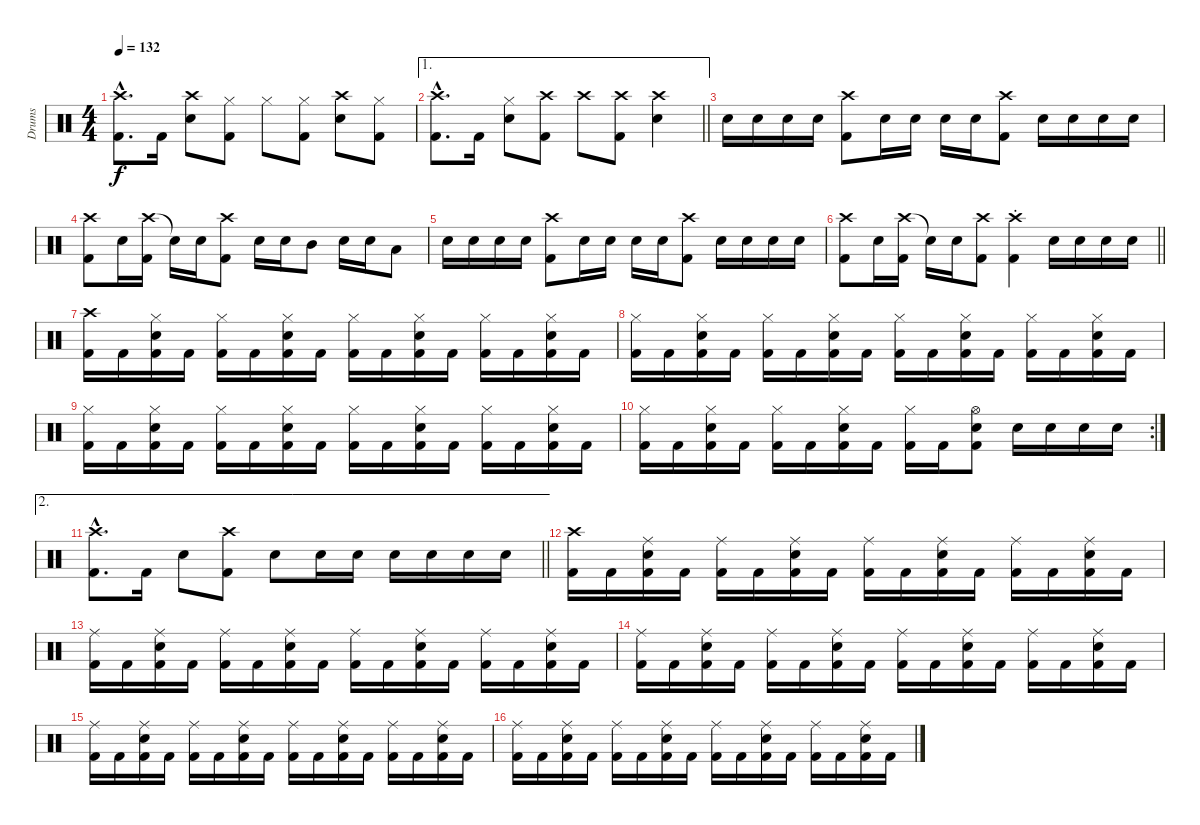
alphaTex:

\track ("Drums" "Drums") {instrument percussion}
\staff {score}
\articulation defaults
\ts (4 4)
\tempo 132
\clef neutral
\ks c
("Crash high (hit)"{hac} "Kick (hit) 2"{hac}).8{d dy f} "Kick (hit) 2".16 ("Crash high (hit)" "Snare (hit) 2").8 ("Hi-Hat (closed)" "Kick (hit) 2").8 "Hi-Hat (closed)".8 ("Hi-Hat (closed)" "Kick (hit) 2").8 ("Crash high (hit)" "Snare (hit) 2").8 ("Hi-Hat (closed)" "Kick (hit) 2").8 |
\ae 1
\barLineRight lightlight
("Crash high (hit)"{hac} "Kick (hit) 2"{hac}).8{d} "Kick (hit) 2".16 ("Hi-Hat (closed)" "Snare (hit) 2").8 ("Crash high (hit)" "Kick (hit) 2").8 "Crash high (hit)".8 ("Crash high (hit)" "Kick (hit) 2").8 ("Crash high (hit)" "Snare (hit) 2").4 |
"Snare (hit) 2".16 "Snare (hit) 2".16 "Snare (hit) 2".16 "Snare (hit) 2".16 ("Crash high (hit)" "Kick (hit) 2").8 "Snare (hit) 2".16 "Snare (hit) 2".16 "Snare (hit) 2".16 "Snare (hit) 2".16 ("Crash high (hit)" "Kick (hit) 2").8 "Snare (hit) 2".16 "Snare (hit) 2".16 "Snare (hit) 2".16 "Snare (hit) 2".16 |
("Crash high (hit)" "Kick (hit) 2").8 "Snare (hit) 2".16 ("Crash high (hit)" "Kick (hit) 2").16 "Snare (hit)"{t}.16 "Snare (hit) 2".16 ("Crash high (hit)" "Kick (hit) 2").8 "Snare (hit) 2".16 "Snare (hit) 2".16 "Mid Tom (hit)".8 "Snare (hit) 2".16 "Snare (hit) 2".16 "Low Tom (hit)".8 |
"Snare (hit) 2".16 "Snare (hit) 2".16 "Snare (hit) 2".16 "Snare (hit) 2".16 ("Crash high (hit)" "Kick (hit) 2").8 "Snare (hit) 2".16 "Snare (hit) 2".16 "Snare (hit) 2".16 "Snare (hit) 2".16 ("Crash high (hit)" "Kick (hit) 2").8 "Snare (hit) 2".16 "Snare (hit) 2".16 "Snare (hit) 2".16 "Snare (hit) 2".16 |
\barLineRight lightlight
("Crash high (hit)" "Kick (hit) 2").8 "Snare (hit) 2".16 ("Crash high (hit)" "Kick (hit) 2").16 "Snare (hit)"{t}.16 "Snare (hit) 2".16 ("Crash high (hit)" "Kick (hit) 2").8 ("Crash high (hit)"{st} "Kick (hit) 2"{st}).4 "Snare (hit) 2".16 "Snare (hit) 2".16 "Snare (hit) 2".16 "Snare (hit) 2".16 |
("Crash high (hit)" "Kick (hit) 2").16 "Kick (hit) 2".16 ("Hi-Hat (closed)" "Snare (hit) 2" "Kick (hit) 2").16 "Kick (hit) 2".16 ("Hi-Hat (closed)" "Kick (hit) 2").16 "Kick (hit) 2".16 ("Hi-Hat (closed)" "Snare (hit) 2" "Kick (hit) 2").16 "Kick (hit) 2".16 ("Hi-Hat (closed)" "Kick (hit) 2").16 "Kick (hit) 2".16 ("Hi-Hat (closed)" "Snare (hit) 2" "Kick (hit) 2").16 "Kick (hit) 2".16 ("Hi-Hat (closed)" "Kick (hit) 2").16 "Kick (hit) 2".16 ("Hi-Hat (closed)" "Snare (hit) 2" "Kick (hit) 2").16 "Kick (hit) 2".16 |
("Hi-Hat (closed)" "Kick (hit) 2").16 "Kick (hit) 2".16 ("Hi-Hat (closed)" "Snare (hit) 2" "Kick (hit) 2").16 "Kick (hit) 2".16 ("Hi-Hat (closed)" "Kick (hit) 2").16 "Kick (hit) 2".16 ("Hi-Hat (closed)" "Snare (hit) 2" "Kick (hit) 2").16 "Kick (hit) 2".16 ("Hi-Hat (closed)" "Kick (hit) 2").16 "Kick (hit) 2".16 ("Hi-Hat (closed)" "Snare (hit) 2" "Kick (hit) 2").16 "Kick (hit) 2".16 ("Hi-Hat (closed)" "Kick (hit) 2").16 "Kick (hit) 2".16 ("Hi-Hat (closed)" "Snare (hit) 2" "Kick (hit) 2").16 "Kick (hit) 2".16 |
("Hi-Hat (closed)" "Kick (hit) 2").16 "Kick (hit) 2".16 ("Hi-Hat (closed)" "Snare (hit) 2" "Kick (hit) 2").16 "Kick (hit) 2".16 ("Hi-Hat (closed)" "Kick (hit) 2").16 "Kick (hit) 2".16 ("Hi-Hat (closed)" "Snare (hit) 2" "Kick (hit) 2").16 "Kick (hit) 2".16 ("Hi-Hat (closed)" "Kick (hit) 2").16 "Kick (hit) 2".16 ("Hi-Hat (closed)" "Snare (hit) 2" "Kick (hit) 2").16 "Kick (hit) 2".16 ("Hi-Hat (closed)" "Kick (hit) 2").16 "Kick (hit) 2".16 ("Hi-Hat (closed)" "Snare (hit) 2" "Kick (hit) 2").16 "Kick (hit) 2".16 |
\rc 2
("Hi-Hat (closed)" "Kick (hit) 2").16 "Kick (hit) 2".16 ("Hi-Hat (closed)" "Snare (hit) 2" "Kick (hit) 2").16 "Kick (hit) 2".16 ("Hi-Hat (closed)" "Kick (hit) 2").16 "Kick (hit) 2".16 ("Hi-Hat (closed)" "Snare (hit) 2" "Kick (hit) 2").16 "Kick (hit) 2".16 ("Hi-Hat (closed)" "Kick (hit) 2").16 "Kick (hit) 2".16 ("Hi-Hat (open)" "Snare (hit) 2" "Kick (hit) 2").8 "Snare (hit) 2".16 "Snare (hit) 2".16 "Snare (hit) 2".16 "Snare (hit) 2".16 |
\ae 2
\barLineRight lightlight
("Crash high (hit)"{hac} "Kick (hit) 2"{hac}).8{d} "Kick (hit) 2".16 "Snare (hit) 2".8 ("Crash high (hit)" "Kick (hit) 2").8 "Snare (hit) 2".8 "Snare (hit) 2".16 "Snare (hit) 2".16 "Snare (hit) 2".16 "Snare (hit) 2".16 "Snare (hit) 2".16 "Snare (hit) 2".16 |
("Crash high (hit)" "Kick (hit) 2").16 "Kick (hit) 2".16 ("Ride (middle)" "Snare (hit) 2" "Kick (hit) 2").16 "Kick (hit) 2".16 ("Ride (middle)" "Kick (hit) 2").16 "Kick (hit) 2".16 ("Ride (middle)" "Snare (hit) 2" "Kick (hit) 2").16 "Kick (hit) 2".16 ("Ride (middle)" "Kick (hit) 2").16 "Kick (hit) 2".16 ("Ride (middle)" "Snare (hit) 2" "Kick (hit) 2").16 "Kick (hit) 2".16 ("Ride (middle)" "Kick (hit) 2").16 "Kick (hit) 2".16 ("Ride (middle)" "Snare (hit) 2" "Kick (hit) 2").16 "Kick (hit) 2".16 |
("Ride (middle)" "Kick (hit) 2").16 "Kick (hit) 2".16 ("Ride (middle)" "Snare (hit) 2" "Kick (hit) 2").16 "Kick (hit) 2".16 ("Ride (middle)" "Kick (hit) 2").16 "Kick (hit) 2".16 ("Ride (middle)" "Snare (hit) 2" "Kick (hit) 2").16 "Kick (hit) 2".16 ("Ride (middle)" "Kick (hit) 2").16 "Kick (hit) 2".16 ("Ride (middle)" "Snare (hit) 2" "Kick (hit) 2").16 "Kick (hit) 2".16 ("Ride (middle)" "Kick (hit) 2").16 "Kick (hit) 2".16 ("Ride (middle)" "Snare (hit) 2" "Kick (hit) 2").16 "Kick (hit) 2".16 |
("Ride (middle)" "Kick (hit) 2").16 "Kick (hit) 2".16 ("Ride (middle)" "Snare (hit) 2" "Kick (hit) 2").16 "Kick (hit) 2".16 ("Ride (middle)" "Kick (hit) 2").16 "Kick (hit) 2".16 ("Ride (middle)" "Snare (hit) 2" "Kick (hit) 2").16 "Kick (hit) 2".16 ("Ride (middle)" "Kick (hit) 2").16 "Kick (hit) 2".16 ("Ride (middle)" "Snare (hit) 2" "Kick (hit) 2").16 "Kick (hit) 2".16 ("Ride (middle)" "Kick (hit) 2").16 "Kick (hit) 2".16 ("Ride (middle)" "Snare (hit) 2" "Kick (hit) 2").16 "Kick (hit) 2".16 |
("Ride (middle)" "Kick (hit) 2").16 "Kick (hit) 2".16 ("Ride (middle)" "Snare (hit) 2" "Kick (hit) 2").16 "Kick (hit) 2".16 ("Ride (middle)" "Kick (hit) 2").16 "Kick (hit) 2".16 ("Ride (middle)" "Snare (hit) 2" "Kick (hit) 2").16 "Kick (hit) 2".16 ("Ride (middle)" "Kick (hit) 2").16 "Kick (hit) 2".16 ("Ride (middle)" "Snare (hit) 2" "Kick (hit) 2").16 "Kick (hit) 2".16 ("Ride (middle)" "Kick (hit) 2").16 "Kick (hit) 2".16 ("Ride (middle)" "Snare (hit) 2" "Kick (hit) 2").16 "Kick (hit) 2".16 |
("Ride (middle)" "Kick (hit) 2").16 "Kick (hit) 2".16 ("Ride (middle)" "Snare (hit) 2" "Kick (hit) 2").16 "Kick (hit) 2".16 ("Ride (middle)" "Kick (hit) 2").16 "Kick (hit) 2".16 ("Ride (middle)" "Snare (hit) 2" "Kick (hit) 2").16 "Kick (hit) 2".16 ("Ride (middle)" "Kick (hit) 2").16 "Kick (hit) 2".16 ("Ride (middle)" "Snare (hit) 2" "Kick (hit) 2").16 "Kick (hit) 2".16 ("Ride (middle)" "Kick (hit) 2").16 "Kick (hit) 2".16 ("Ride (middle)" "Snare (hit) 2" "Kick (hit) 2").16 "Kick (hit) 2".16
